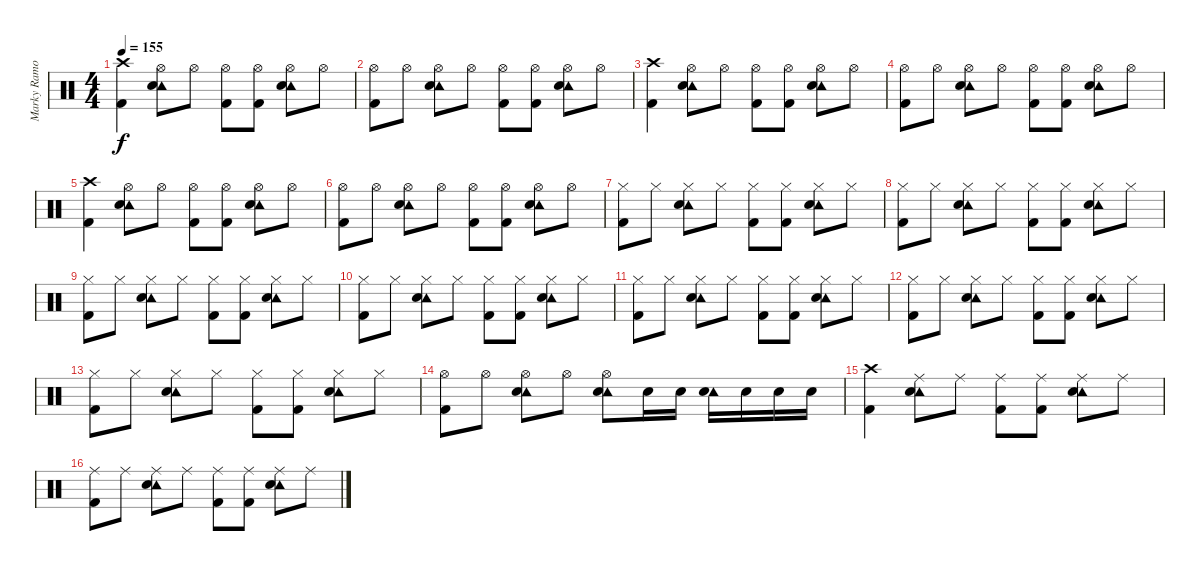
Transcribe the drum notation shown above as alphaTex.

\track ("Marky Ramone" "Marky Ramo") {instrument percussion}
\staff {score}
\articulation defaults
\ts (4 4)
\tempo 155
\clef neutral
\ks c
("Kick (hit) 2" "Crash high (hit)").4{dy f} ("Tambourine (hit)" "Electric Snare (hit)" "Hi-Hat (open)").8 "Hi-Hat (open)".8 ("Kick (hit) 2" "Hi-Hat (open)").8 ("Kick (hit) 2" "Hi-Hat (open)").8 ("Tambourine (hit)" "Electric Snare (hit)" "Hi-Hat (open)").8 "Hi-Hat (open)".8 |
("Kick (hit) 2" "Hi-Hat (open)").8 "Hi-Hat (open)".8 ("Tambourine (hit)" "Electric Snare (hit)" "Hi-Hat (open)").8 "Hi-Hat (open)".8 ("Kick (hit) 2" "Hi-Hat (open)").8 ("Kick (hit) 2" "Hi-Hat (open)").8 ("Tambourine (hit)" "Electric Snare (hit)" "Hi-Hat (open)").8 "Hi-Hat (open)".8 |
("Kick (hit) 2" "Crash high (hit)").4 ("Tambourine (hit)" "Electric Snare (hit)" "Hi-Hat (open)").8 "Hi-Hat (open)".8 ("Kick (hit) 2" "Hi-Hat (open)").8 ("Kick (hit) 2" "Hi-Hat (open)").8 ("Tambourine (hit)" "Electric Snare (hit)" "Hi-Hat (open)").8 "Hi-Hat (open)".8 |
("Kick (hit) 2" "Hi-Hat (open)").8 "Hi-Hat (open)".8 ("Tambourine (hit)" "Electric Snare (hit)" "Hi-Hat (open)").8 "Hi-Hat (open)".8 ("Kick (hit) 2" "Hi-Hat (open)").8 ("Kick (hit) 2" "Hi-Hat (open)").8 ("Tambourine (hit)" "Electric Snare (hit)" "Hi-Hat (open)").8 "Hi-Hat (open)".8 |
("Kick (hit) 2" "Crash high (hit)").4 ("Tambourine (hit)" "Electric Snare (hit)" "Hi-Hat (open)").8 "Hi-Hat (open)".8 ("Kick (hit) 2" "Hi-Hat (open)").8 ("Kick (hit) 2" "Hi-Hat (open)").8 ("Tambourine (hit)" "Electric Snare (hit)" "Hi-Hat (open)").8 "Hi-Hat (open)".8 |
("Kick (hit) 2" "Hi-Hat (open)").8 "Hi-Hat (open)".8 ("Tambourine (hit)" "Electric Snare (hit)" "Hi-Hat (open)").8 "Hi-Hat (open)".8 ("Kick (hit) 2" "Hi-Hat (open)").8 ("Kick (hit) 2" "Hi-Hat (open)").8 ("Tambourine (hit)" "Electric Snare (hit)" "Hi-Hat (open)").8 "Hi-Hat (open)".8 |
("Kick (hit) 2" "Hi-Hat (closed)").8 "Hi-Hat (closed)".8 ("Tambourine (hit)" "Electric Snare (hit)" "Hi-Hat (closed)").8 "Hi-Hat (closed)".8 ("Kick (hit) 2" "Hi-Hat (closed)").8 ("Kick (hit) 2" "Hi-Hat (closed)").8 ("Tambourine (hit)" "Electric Snare (hit)" "Hi-Hat (closed)").8 "Hi-Hat (closed)".8 |
("Kick (hit) 2" "Hi-Hat (closed)").8 "Hi-Hat (closed)".8 ("Tambourine (hit)" "Electric Snare (hit)" "Hi-Hat (closed)").8 "Hi-Hat (closed)".8 ("Kick (hit) 2" "Hi-Hat (closed)").8 ("Kick (hit) 2" "Hi-Hat (closed)").8 ("Tambourine (hit)" "Electric Snare (hit)" "Hi-Hat (closed)").8 "Hi-Hat (closed)".8 |
("Kick (hit) 2" "Hi-Hat (closed)").8 "Hi-Hat (closed)".8 ("Tambourine (hit)" "Electric Snare (hit)" "Hi-Hat (closed)").8 "Hi-Hat (closed)".8 ("Kick (hit) 2" "Hi-Hat (closed)").8 ("Kick (hit) 2" "Hi-Hat (closed)").8 ("Tambourine (hit)" "Electric Snare (hit)" "Hi-Hat (closed)").8 "Hi-Hat (closed)".8 |
("Kick (hit) 2" "Hi-Hat (closed)").8 "Hi-Hat (closed)".8 ("Tambourine (hit)" "Electric Snare (hit)" "Hi-Hat (closed)").8 "Hi-Hat (closed)".8 ("Kick (hit) 2" "Hi-Hat (closed)").8 ("Kick (hit) 2" "Hi-Hat (closed)").8 ("Tambourine (hit)" "Electric Snare (hit)" "Hi-Hat (closed)").8 "Hi-Hat (closed)".8 |
("Kick (hit) 2" "Hi-Hat (closed)").8 "Hi-Hat (closed)".8 ("Tambourine (hit)" "Electric Snare (hit)" "Hi-Hat (closed)").8 "Hi-Hat (closed)".8 ("Kick (hit) 2" "Hi-Hat (closed)").8 ("Kick (hit) 2" "Hi-Hat (closed)").8 ("Tambourine (hit)" "Electric Snare (hit)" "Hi-Hat (closed)").8 "Hi-Hat (closed)".8 |
("Kick (hit) 2" "Hi-Hat (closed)").8 "Hi-Hat (closed)".8 ("Tambourine (hit)" "Electric Snare (hit)" "Hi-Hat (closed)").8 "Hi-Hat (closed)".8 ("Kick (hit) 2" "Hi-Hat (closed)").8 ("Kick (hit) 2" "Hi-Hat (closed)").8 ("Tambourine (hit)" "Electric Snare (hit)" "Hi-Hat (closed)").8 "Hi-Hat (closed)".8 |
("Kick (hit) 2" "Hi-Hat (closed)").8 "Hi-Hat (closed)".8 ("Tambourine (hit)" "Electric Snare (hit)" "Hi-Hat (closed)").8 "Hi-Hat (closed)".8 ("Kick (hit) 2" "Hi-Hat (closed)").8 ("Kick (hit) 2" "Hi-Hat (closed)").8 ("Tambourine (hit)" "Electric Snare (hit)" "Hi-Hat (closed)").8 "Hi-Hat (closed)".8 |
("Kick (hit) 2" "Hi-Hat (open)").8 "Hi-Hat (open)".8 ("Tambourine (hit)" "Electric Snare (hit)" "Hi-Hat (open)").8 "Hi-Hat (open)".8 ("Tambourine (hit)" "Electric Snare (hit)" "Hi-Hat (open)").8 "Electric Snare (hit)".16 "Electric Snare (hit)".16 ("Tambourine (hit)" "Electric Snare (hit)").16 "Electric Snare (hit)".16 "Electric Snare (hit)".16 "Electric Snare (hit)".16 |
("Kick (hit) 2" "Crash high (hit)").4 ("Tambourine (hit)" "Electric Snare (hit)" "Ride (middle)").8 "Ride (middle)".8 ("Kick (hit) 2" "Ride (middle)").8 ("Kick (hit) 2" "Ride (middle)").8 ("Tambourine (hit)" "Electric Snare (hit)" "Ride (middle)").8 "Ride (middle)".8 |
("Kick (hit) 2" "Ride (middle)").8 "Ride (middle)".8 ("Tambourine (hit)" "Electric Snare (hit)" "Ride (middle)").8 "Ride (middle)".8 ("Kick (hit) 2" "Ride (middle)").8 ("Kick (hit) 2" "Ride (middle)").8 ("Tambourine (hit)" "Electric Snare (hit)" "Ride (middle)").8 "Ride (middle)".8
